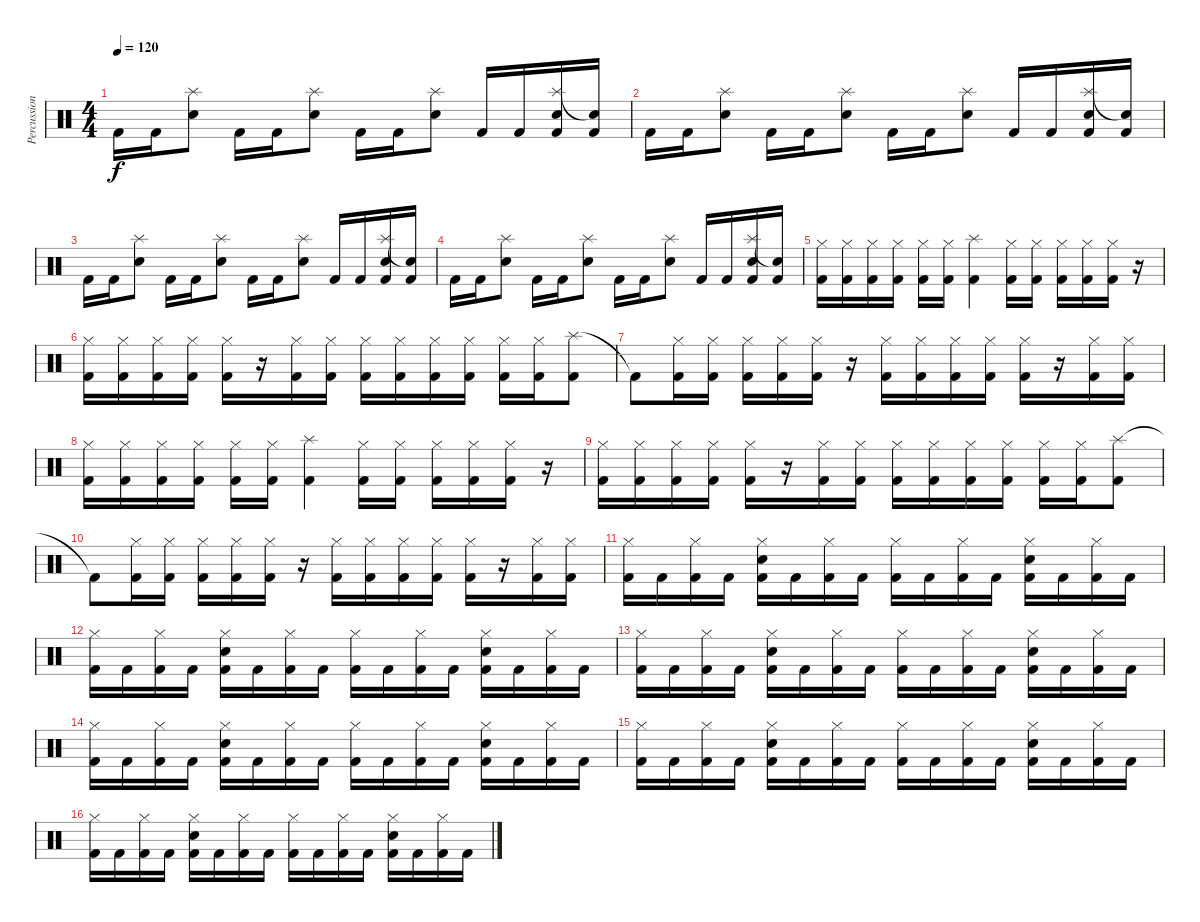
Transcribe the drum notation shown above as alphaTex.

\track ("Percussion" "Percussion") {instrument percussion}
\staff {score}
\articulation defaults
\ts (4 4)
\tempo 120
\clef neutral
\ks c "Kick (hit) 2".16{dy f} "Kick (hit) 2".16
("Splash (hit)" "Electric Snare (hit)").8 "Kick (hit) 2".16 "Kick (hit) 2".16 ("Splash (hit)" "Electric Snare (hit)").8 "Kick (hit) 2".16 "Kick (hit) 2".16 ("Splash (hit)" "Electric Snare (hit)").8 "Kick (hit) 2".16 "Kick (hit) 2".16 ("Splash (hit)" "Electric Snare (hit)" "Kick (hit) 2").16 ("Electric Snare (hit)"{t} "Kick (hit) 2").16 |
"Kick (hit) 2".16 "Kick (hit) 2".16 ("Splash (hit)" "Electric Snare (hit)").8 "Kick (hit) 2".16 "Kick (hit) 2".16 ("Splash (hit)" "Electric Snare (hit)").8 "Kick (hit) 2".16 "Kick (hit) 2".16 ("Splash (hit)" "Electric Snare (hit)").8 "Kick (hit) 2".16 "Kick (hit) 2".16 ("Splash (hit)" "Electric Snare (hit)" "Kick (hit) 2").16 ("Electric Snare (hit)"{t} "Kick (hit) 2").16 |
"Kick (hit) 2".16 "Kick (hit) 2".16 ("Splash (hit)" "Electric Snare (hit)").8 "Kick (hit) 2".16 "Kick (hit) 2".16 ("Splash (hit)" "Electric Snare (hit)").8 "Kick (hit) 2".16 "Kick (hit) 2".16 ("Splash (hit)" "Electric Snare (hit)").8 "Kick (hit) 2".16 "Kick (hit) 2".16 ("Splash (hit)" "Electric Snare (hit)" "Kick (hit) 2").16 ("Electric Snare (hit)"{t} "Kick (hit) 2").16 |
"Kick (hit) 2".16 "Kick (hit) 2".16 ("Splash (hit)" "Electric Snare (hit)").8 "Kick (hit) 2".16 "Kick (hit) 2".16 ("Splash (hit)" "Electric Snare (hit)").8 "Kick (hit) 2".16 "Kick (hit) 2".16 ("Splash (hit)" "Electric Snare (hit)").8 "Kick (hit) 2".16 "Kick (hit) 2".16 ("Splash (hit)" "Electric Snare (hit)" "Kick (hit) 2").16 ("Electric Snare (hit)"{t} "Kick (hit) 2").16 |
("Hi-Hat (closed)" "Kick (hit) 2").16 ("Hi-Hat (closed)" "Kick (hit) 2").16 ("Hi-Hat (closed)" "Kick (hit) 2").16 ("Hi-Hat (closed)" "Kick (hit) 2").16 ("Hi-Hat (closed)" "Kick (hit) 2").16 ("Hi-Hat (closed)" "Kick (hit) 2").16 ("Splash (hit)" "Kick (hit) 2").4 ("Hi-Hat (closed)" "Kick (hit) 2").16 ("Hi-Hat (closed)" "Kick (hit) 2").16 ("Hi-Hat (closed)" "Kick (hit) 2").16 ("Hi-Hat (closed)" "Kick (hit) 2").16 ("Hi-Hat (closed)" "Kick (hit) 2").16 r.16 |
("Hi-Hat (closed)" "Kick (hit) 2").16 ("Hi-Hat (closed)" "Kick (hit) 2").16 ("Hi-Hat (closed)" "Kick (hit) 2").16 ("Hi-Hat (closed)" "Kick (hit) 2").16 ("Hi-Hat (closed)" "Kick (hit) 2").16 r.16 ("Hi-Hat (closed)" "Kick (hit) 2").16 ("Hi-Hat (closed)" "Kick (hit) 2").16 ("Hi-Hat (closed)" "Kick (hit) 2").16 ("Hi-Hat (closed)" "Kick (hit) 2").16 ("Hi-Hat (closed)" "Kick (hit) 2").16 ("Hi-Hat (closed)" "Kick (hit) 2").16 ("Hi-Hat (closed)" "Kick (hit) 2").16 ("Hi-Hat (closed)" "Kick (hit) 2").16 ("Splash (hit)" "Kick (hit) 2").8 |
"Kick (hit) 2"{t}.8 ("Hi-Hat (closed)" "Kick (hit) 2").16 ("Hi-Hat (closed)" "Kick (hit) 2").16 ("Hi-Hat (closed)" "Kick (hit) 2").16 ("Hi-Hat (closed)" "Kick (hit) 2").16 ("Hi-Hat (closed)" "Kick (hit) 2").16 r.16 ("Hi-Hat (closed)" "Kick (hit) 2").16 ("Hi-Hat (closed)" "Kick (hit) 2").16 ("Hi-Hat (closed)" "Kick (hit) 2").16 ("Hi-Hat (closed)" "Kick (hit) 2").16 ("Hi-Hat (closed)" "Kick (hit) 2").16 r.16 ("Hi-Hat (closed)" "Kick (hit) 2").16 ("Hi-Hat (closed)" "Kick (hit) 2").16 |
("Hi-Hat (closed)" "Kick (hit) 2").16 ("Hi-Hat (closed)" "Kick (hit) 2").16 ("Hi-Hat (closed)" "Kick (hit) 2").16 ("Hi-Hat (closed)" "Kick (hit) 2").16 ("Hi-Hat (closed)" "Kick (hit) 2").16 ("Hi-Hat (closed)" "Kick (hit) 2").16 ("Splash (hit)" "Kick (hit) 2").4 ("Hi-Hat (closed)" "Kick (hit) 2").16 ("Hi-Hat (closed)" "Kick (hit) 2").16 ("Hi-Hat (closed)" "Kick (hit) 2").16 ("Hi-Hat (closed)" "Kick (hit) 2").16 ("Hi-Hat (closed)" "Kick (hit) 2").16 r.16 |
("Hi-Hat (closed)" "Kick (hit) 2").16 ("Hi-Hat (closed)" "Kick (hit) 2").16 ("Hi-Hat (closed)" "Kick (hit) 2").16 ("Hi-Hat (closed)" "Kick (hit) 2").16 ("Hi-Hat (closed)" "Kick (hit) 2").16 r.16 ("Hi-Hat (closed)" "Kick (hit) 2").16 ("Hi-Hat (closed)" "Kick (hit) 2").16 ("Hi-Hat (closed)" "Kick (hit) 2").16 ("Hi-Hat (closed)" "Kick (hit) 2").16 ("Hi-Hat (closed)" "Kick (hit) 2").16 ("Hi-Hat (closed)" "Kick (hit) 2").16 ("Hi-Hat (closed)" "Kick (hit) 2").16 ("Hi-Hat (closed)" "Kick (hit) 2").16 ("Splash (hit)" "Kick (hit) 2").8 |
"Kick (hit) 2"{t}.8 ("Hi-Hat (closed)" "Kick (hit) 2").16 ("Hi-Hat (closed)" "Kick (hit) 2").16 ("Hi-Hat (closed)" "Kick (hit) 2").16 ("Hi-Hat (closed)" "Kick (hit) 2").16 ("Hi-Hat (closed)" "Kick (hit) 2").16 r.16 ("Hi-Hat (closed)" "Kick (hit) 2").16 ("Hi-Hat (closed)" "Kick (hit) 2").16 ("Hi-Hat (closed)" "Kick (hit) 2").16 ("Hi-Hat (closed)" "Kick (hit) 2").16 ("Hi-Hat (closed)" "Kick (hit) 2").16 r.16 ("Hi-Hat (closed)" "Kick (hit) 2").16 ("Hi-Hat (closed)" "Kick (hit) 2").16 |
("Hi-Hat (closed)" "Kick (hit) 2").16 "Kick (hit) 2".16 ("Hi-Hat (closed)" "Kick (hit) 2").16 "Kick (hit) 2".16 ("Hi-Hat (closed)" "Electric Snare (hit)" "Kick (hit) 2").16 "Kick (hit) 2".16 ("Hi-Hat (closed)" "Kick (hit) 2").16 "Kick (hit) 2".16 ("Hi-Hat (closed)" "Kick (hit) 2").16 "Kick (hit) 2".16 ("Hi-Hat (closed)" "Kick (hit) 2").16 "Kick (hit) 2".16 ("Hi-Hat (closed)" "Electric Snare (hit)" "Kick (hit) 2").16 "Kick (hit) 2".16 ("Hi-Hat (closed)" "Kick (hit) 2").16 "Kick (hit) 2".16 |
("Hi-Hat (closed)" "Kick (hit) 2").16 "Kick (hit) 2".16 ("Hi-Hat (closed)" "Kick (hit) 2").16 "Kick (hit) 2".16 ("Hi-Hat (closed)" "Electric Snare (hit)" "Kick (hit) 2").16 "Kick (hit) 2".16 ("Hi-Hat (closed)" "Kick (hit) 2").16 "Kick (hit) 2".16 ("Hi-Hat (closed)" "Kick (hit) 2").16 "Kick (hit) 2".16 ("Hi-Hat (closed)" "Kick (hit) 2").16 "Kick (hit) 2".16 ("Hi-Hat (closed)" "Electric Snare (hit)" "Kick (hit) 2").16 "Kick (hit) 2".16 ("Hi-Hat (closed)" "Kick (hit) 2").16 "Kick (hit) 2".16 |
("Hi-Hat (closed)" "Kick (hit) 2").16 "Kick (hit) 2".16 ("Hi-Hat (closed)" "Kick (hit) 2").16 "Kick (hit) 2".16 ("Hi-Hat (closed)" "Electric Snare (hit)" "Kick (hit) 2").16 "Kick (hit) 2".16 ("Hi-Hat (closed)" "Kick (hit) 2").16 "Kick (hit) 2".16 ("Hi-Hat (closed)" "Kick (hit) 2").16 "Kick (hit) 2".16 ("Hi-Hat (closed)" "Kick (hit) 2").16 "Kick (hit) 2".16 ("Hi-Hat (closed)" "Electric Snare (hit)" "Kick (hit) 2").16 "Kick (hit) 2".16 ("Hi-Hat (closed)" "Kick (hit) 2").16 "Kick (hit) 2".16 |
("Hi-Hat (closed)" "Kick (hit) 2").16 "Kick (hit) 2".16 ("Hi-Hat (closed)" "Kick (hit) 2").16 "Kick (hit) 2".16 ("Hi-Hat (closed)" "Electric Snare (hit)" "Kick (hit) 2").16 "Kick (hit) 2".16 ("Hi-Hat (closed)" "Kick (hit) 2").16 "Kick (hit) 2".16 ("Hi-Hat (closed)" "Kick (hit) 2").16 "Kick (hit) 2".16 ("Hi-Hat (closed)" "Kick (hit) 2").16 "Kick (hit) 2".16 ("Hi-Hat (closed)" "Electric Snare (hit)" "Kick (hit) 2").16 "Kick (hit) 2".16 ("Hi-Hat (closed)" "Kick (hit) 2").16 "Kick (hit) 2".16 |
("Hi-Hat (closed)" "Kick (hit) 2").16 "Kick (hit) 2".16 ("Hi-Hat (closed)" "Kick (hit) 2").16 "Kick (hit) 2".16 ("Hi-Hat (closed)" "Electric Snare (hit)" "Kick (hit) 2").16 "Kick (hit) 2".16 ("Hi-Hat (closed)" "Kick (hit) 2").16 "Kick (hit) 2".16 ("Hi-Hat (closed)" "Kick (hit) 2").16 "Kick (hit) 2".16 ("Hi-Hat (closed)" "Kick (hit) 2").16 "Kick (hit) 2".16 ("Hi-Hat (closed)" "Electric Snare (hit)" "Kick (hit) 2").16 "Kick (hit) 2".16 ("Hi-Hat (closed)" "Kick (hit) 2").16 "Kick (hit) 2".16 |
("Hi-Hat (closed)" "Kick (hit) 2").16 "Kick (hit) 2".16 ("Hi-Hat (closed)" "Kick (hit) 2").16 "Kick (hit) 2".16 ("Hi-Hat (closed)" "Electric Snare (hit)" "Kick (hit) 2").16 "Kick (hit) 2".16 ("Hi-Hat (closed)" "Kick (hit) 2").16 "Kick (hit) 2".16 ("Hi-Hat (closed)" "Kick (hit) 2").16 "Kick (hit) 2".16 ("Hi-Hat (closed)" "Kick (hit) 2").16 "Kick (hit) 2".16 ("Hi-Hat (closed)" "Electric Snare (hit)" "Kick (hit) 2").16 "Kick (hit) 2".16 ("Hi-Hat (closed)" "Kick (hit) 2").16 "Kick (hit) 2".16
